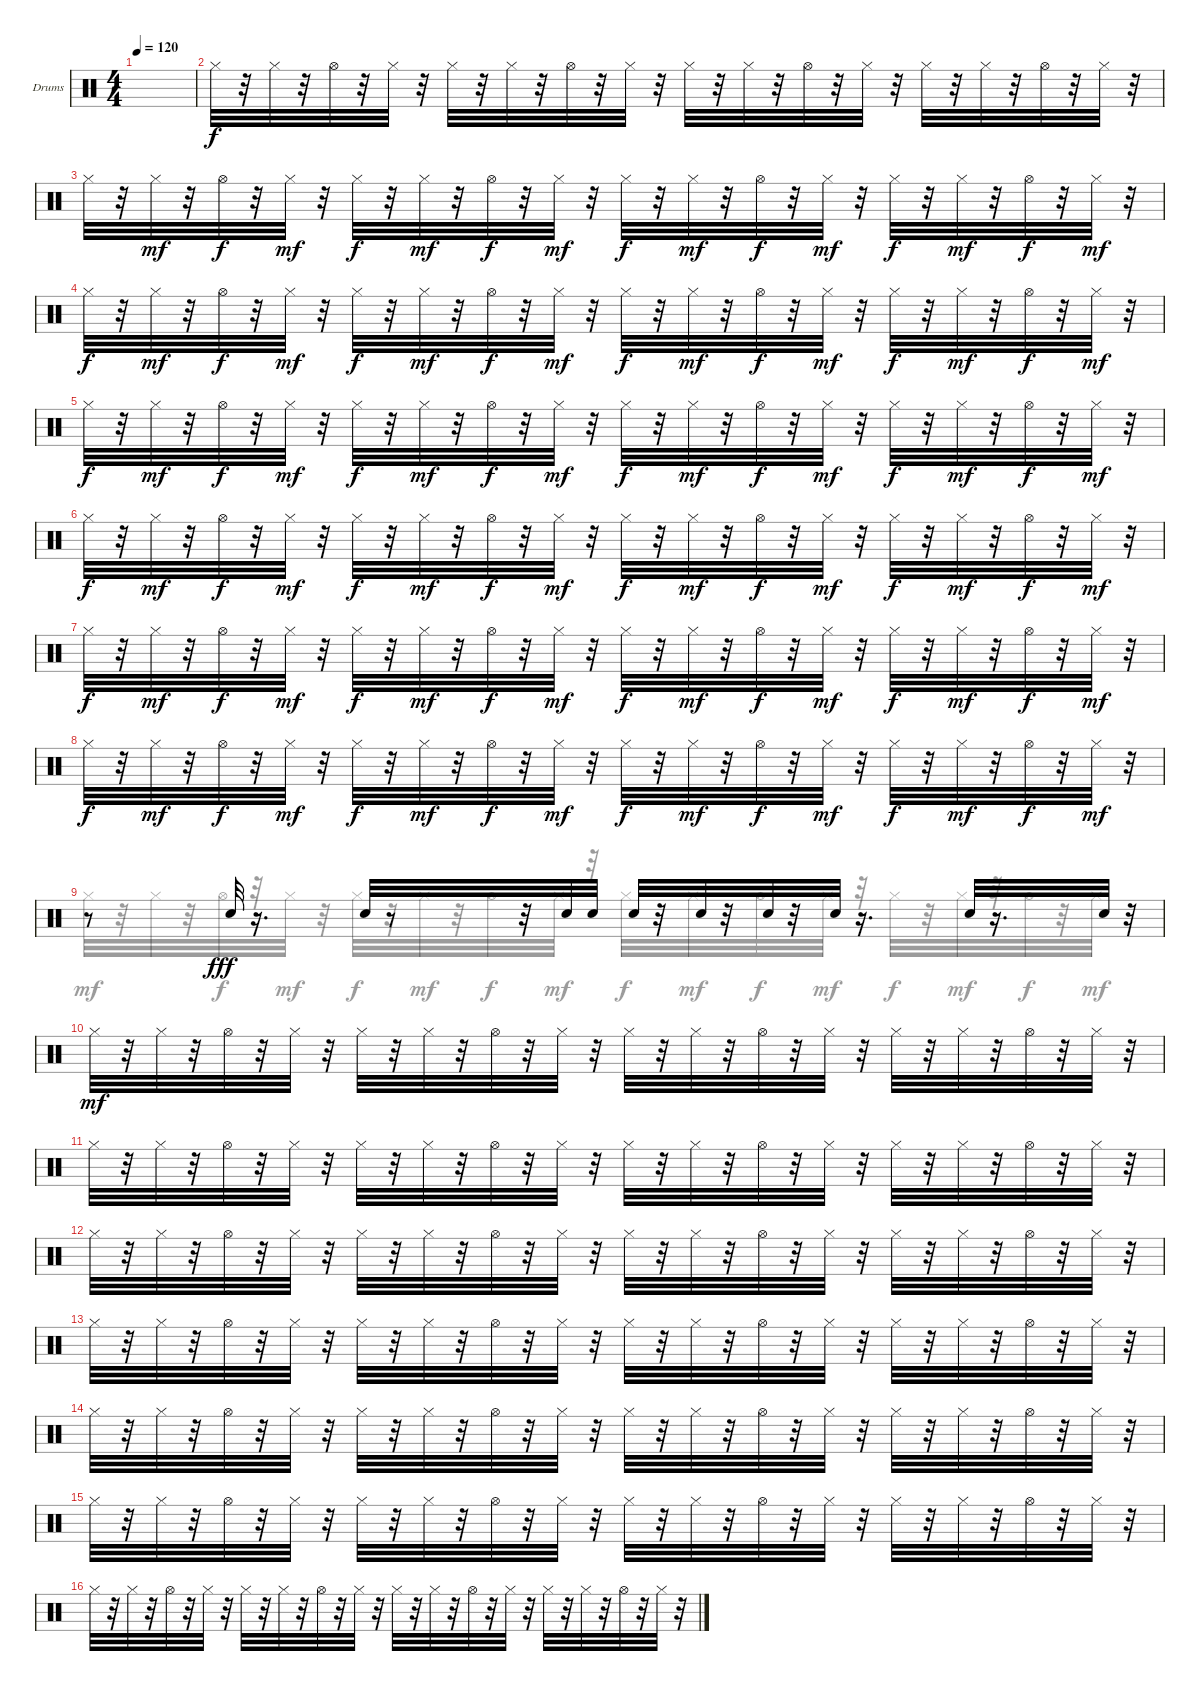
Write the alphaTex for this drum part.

\defaultSystemsLayout 4
\bracketExtendMode nobrackets
\firstSystemTrackNameOrientation horizontal
\otherSystemsTrackNameOrientation horizontal
\track ("Drumkit" "Drums") {instrument percussion}
\staff {score}
\articulation defaults
\voice
\ts (4 4)
\tempo 120
\clef neutral
\ks c
|
"Hi-Hat (closed)".32 r.32 "Hi-Hat (closed)".32 r.32 "Hi-Hat (open)".32 r.32 "Hi-Hat (closed)".32 r.32 "Hi-Hat (closed)".32 r.32 "Hi-Hat (closed)".32 r.32 "Hi-Hat (open)".32 r.32 "Hi-Hat (closed)".32 r.32 "Hi-Hat (closed)".32 r.32 "Hi-Hat (closed)".32 r.32 "Hi-Hat (open)".32 r.32 "Hi-Hat (closed)".32 r.32 "Hi-Hat (closed)".32 r.32 "Hi-Hat (closed)".32 r.32 "Hi-Hat (open)".32 r.32 "Hi-Hat (closed)".32 r.32 |
"Hi-Hat (closed)".32{dy f} r.32 "Hi-Hat (closed)".32{dy mf} r.32 "Hi-Hat (open)".32{dy f} r.32 "Hi-Hat (closed)".32{dy mf} r.32 "Hi-Hat (closed)".32{dy f} r.32 "Hi-Hat (closed)".32{dy mf} r.32 "Hi-Hat (open)".32{dy f} r.32 "Hi-Hat (closed)".32{dy mf} r.32 "Hi-Hat (closed)".32{dy f} r.32 "Hi-Hat (closed)".32{dy mf} r.32 "Hi-Hat (open)".32{dy f} r.32 "Hi-Hat (closed)".32{dy mf} r.32 "Hi-Hat (closed)".32{dy f} r.32 "Hi-Hat (closed)".32{dy mf} r.32 "Hi-Hat (open)".32{dy f} r.32 "Hi-Hat (closed)".32{dy mf} r.32 |
"Hi-Hat (closed)".32{dy f} r.32 "Hi-Hat (closed)".32{dy mf} r.32 "Hi-Hat (open)".32{dy f} r.32 "Hi-Hat (closed)".32{dy mf} r.32 "Hi-Hat (closed)".32{dy f} r.32 "Hi-Hat (closed)".32{dy mf} r.32 "Hi-Hat (open)".32{dy f} r.32 "Hi-Hat (closed)".32{dy mf} r.32 "Hi-Hat (closed)".32{dy f} r.32 "Hi-Hat (closed)".32{dy mf} r.32 "Hi-Hat (open)".32{dy f} r.32 "Hi-Hat (closed)".32{dy mf} r.32 "Hi-Hat (closed)".32{dy f} r.32 "Hi-Hat (closed)".32{dy mf} r.32 "Hi-Hat (open)".32{dy f} r.32 "Hi-Hat (closed)".32{dy mf} r.32 |
"Hi-Hat (closed)".32{dy f} r.32 "Hi-Hat (closed)".32{dy mf} r.32 "Hi-Hat (open)".32{dy f} r.32 "Hi-Hat (closed)".32{dy mf} r.32 "Hi-Hat (closed)".32{dy f} r.32 "Hi-Hat (closed)".32{dy mf} r.32 "Hi-Hat (open)".32{dy f} r.32 "Hi-Hat (closed)".32{dy mf} r.32 "Hi-Hat (closed)".32{dy f} r.32 "Hi-Hat (closed)".32{dy mf} r.32 "Hi-Hat (open)".32{dy f} r.32 "Hi-Hat (closed)".32{dy mf} r.32 "Hi-Hat (closed)".32{dy f} r.32 "Hi-Hat (closed)".32{dy mf} r.32 "Hi-Hat (open)".32{dy f} r.32 "Hi-Hat (closed)".32{dy mf} r.32 |
"Hi-Hat (closed)".32{dy f} r.32 "Hi-Hat (closed)".32{dy mf} r.32 "Hi-Hat (open)".32{dy f} r.32 "Hi-Hat (closed)".32{dy mf} r.32 "Hi-Hat (closed)".32{dy f} r.32 "Hi-Hat (closed)".32{dy mf} r.32 "Hi-Hat (open)".32{dy f} r.32 "Hi-Hat (closed)".32{dy mf} r.32 "Hi-Hat (closed)".32{dy f} r.32 "Hi-Hat (closed)".32{dy mf} r.32 "Hi-Hat (open)".32{dy f} r.32 "Hi-Hat (closed)".32{dy mf} r.32 "Hi-Hat (closed)".32{dy f} r.32 "Hi-Hat (closed)".32{dy mf} r.32 "Hi-Hat (open)".32{dy f} r.32 "Hi-Hat (closed)".32{dy mf} r.32 |
"Hi-Hat (closed)".32{dy f} r.32 "Hi-Hat (closed)".32{dy mf} r.32 "Hi-Hat (open)".32{dy f} r.32 "Hi-Hat (closed)".32{dy mf} r.32 "Hi-Hat (closed)".32{dy f} r.32 "Hi-Hat (closed)".32{dy mf} r.32 "Hi-Hat (open)".32{dy f} r.32 "Hi-Hat (closed)".32{dy mf} r.32 "Hi-Hat (closed)".32{dy f} r.32 "Hi-Hat (closed)".32{dy mf} r.32 "Hi-Hat (open)".32{dy f} r.32 "Hi-Hat (closed)".32{dy mf} r.32 "Hi-Hat (closed)".32{dy f} r.32 "Hi-Hat (closed)".32{dy mf} r.32 "Hi-Hat (open)".32{dy f} r.32 "Hi-Hat (closed)".32{dy mf} r.32 |
"Hi-Hat (closed)".32{dy f} r.32 "Hi-Hat (closed)".32{dy mf} r.32 "Hi-Hat (open)".32{dy f} r.32 "Hi-Hat (closed)".32{dy mf} r.32 "Hi-Hat (closed)".32{dy f} r.32 "Hi-Hat (closed)".32{dy mf} r.32 "Hi-Hat (open)".32{dy f} r.32 "Hi-Hat (closed)".32{dy mf} r.32 "Hi-Hat (closed)".32{dy f} r.32 "Hi-Hat (closed)".32{dy mf} r.32 "Hi-Hat (open)".32{dy f} r.32 "Hi-Hat (closed)".32{dy mf} r.32 "Hi-Hat (closed)".32{dy f} r.32 "Hi-Hat (closed)".32{dy mf} r.32 "Hi-Hat (open)".32{dy f} r.32 "Hi-Hat (closed)".32{dy mf} r.32 |
\scale
0.474178 r.8 "Snare (hit) 2".32{dy fff} r.16{d} "Snare (hit) 2".32 r.8 r.32 "Snare (hit) 2".32 "Snare (hit) 2".32 "Snare (hit) 2".32 r.32 "Snare (hit) 2".32 r.32 "Snare (hit) 2".32 r.32 "Snare (hit) 2".32 r.16{d} "Snare (hit) 2".32 r.16{d} "Snare (hit) 2".32 r.32 |
\scale
0.262911 "Hi-Hat (closed)".32{dy mf} r.32 "Hi-Hat (closed)".32 r.32 "Hi-Hat (open)".32 r.32 "Hi-Hat (closed)".32 r.32 "Hi-Hat (closed)".32 r.32 "Hi-Hat (closed)".32 r.32 "Hi-Hat (open)".32 r.32 "Hi-Hat (closed)".32 r.32 "Hi-Hat (closed)".32 r.32 "Hi-Hat (closed)".32 r.32 "Hi-Hat (open)".32 r.32 "Hi-Hat (closed)".32 r.32 "Hi-Hat (closed)".32 r.32 "Hi-Hat (closed)".32 r.32 "Hi-Hat (open)".32 r.32 "Hi-Hat (closed)".32 r.32 |
\scale
0.262911 "Hi-Hat (closed)".32 r.32 "Hi-Hat (closed)".32 r.32 "Hi-Hat (open)".32 r.32 "Hi-Hat (closed)".32 r.32 "Hi-Hat (closed)".32 r.32 "Hi-Hat (closed)".32 r.32 "Hi-Hat (open)".32 r.32 "Hi-Hat (closed)".32 r.32 "Hi-Hat (closed)".32 r.32 "Hi-Hat (closed)".32 r.32 "Hi-Hat (open)".32 r.32 "Hi-Hat (closed)".32 r.32 "Hi-Hat (closed)".32 r.32 "Hi-Hat (closed)".32 r.32 "Hi-Hat (open)".32 r.32 "Hi-Hat (closed)".32 r.32 |
\scale
0.333333 "Hi-Hat (closed)".32 r.32 "Hi-Hat (closed)".32 r.32 "Hi-Hat (open)".32 r.32 "Hi-Hat (closed)".32 r.32 "Hi-Hat (closed)".32 r.32 "Hi-Hat (closed)".32 r.32 "Hi-Hat (open)".32 r.32 "Hi-Hat (closed)".32 r.32 "Hi-Hat (closed)".32 r.32 "Hi-Hat (closed)".32 r.32 "Hi-Hat (open)".32 r.32 "Hi-Hat (closed)".32 r.32 "Hi-Hat (closed)".32 r.32 "Hi-Hat (closed)".32 r.32 "Hi-Hat (open)".32 r.32 "Hi-Hat (closed)".32 r.32 |
\scale
0.333333 "Hi-Hat (closed)".32 r.32 "Hi-Hat (closed)".32 r.32 "Hi-Hat (open)".32 r.32 "Hi-Hat (closed)".32 r.32 "Hi-Hat (closed)".32 r.32 "Hi-Hat (closed)".32 r.32 "Hi-Hat (open)".32 r.32 "Hi-Hat (closed)".32 r.32 "Hi-Hat (closed)".32 r.32 "Hi-Hat (closed)".32 r.32 "Hi-Hat (open)".32 r.32 "Hi-Hat (closed)".32 r.32 "Hi-Hat (closed)".32 r.32 "Hi-Hat (closed)".32 r.32 "Hi-Hat (open)".32 r.32 "Hi-Hat (closed)".32 r.32 |
\scale
0.333333 "Hi-Hat (closed)".32 r.32 "Hi-Hat (closed)".32 r.32 "Hi-Hat (open)".32 r.32 "Hi-Hat (closed)".32 r.32 "Hi-Hat (closed)".32 r.32 "Hi-Hat (closed)".32 r.32 "Hi-Hat (open)".32 r.32 "Hi-Hat (closed)".32 r.32 "Hi-Hat (closed)".32 r.32 "Hi-Hat (closed)".32 r.32 "Hi-Hat (open)".32 r.32 "Hi-Hat (closed)".32 r.32 "Hi-Hat (closed)".32 r.32 "Hi-Hat (closed)".32 r.32 "Hi-Hat (open)".32 r.32 "Hi-Hat (closed)".32 r.32 |
\scale
0.333333 "Hi-Hat (closed)".32 r.32 "Hi-Hat (closed)".32 r.32 "Hi-Hat (open)".32 r.32 "Hi-Hat (closed)".32 r.32 "Hi-Hat (closed)".32 r.32 "Hi-Hat (closed)".32 r.32 "Hi-Hat (open)".32 r.32 "Hi-Hat (closed)".32 r.32 "Hi-Hat (closed)".32 r.32 "Hi-Hat (closed)".32 r.32 "Hi-Hat (open)".32 r.32 "Hi-Hat (closed)".32 r.32 "Hi-Hat (closed)".32 r.32 "Hi-Hat (closed)".32 r.32 "Hi-Hat (open)".32 r.32 "Hi-Hat (closed)".32 r.32 |
\scale
0.333333 "Hi-Hat (closed)".32 r.32 "Hi-Hat (closed)".32 r.32 "Hi-Hat (open)".32 r.32 "Hi-Hat (closed)".32 r.32 "Hi-Hat (closed)".32 r.32 "Hi-Hat (closed)".32 r.32 "Hi-Hat (open)".32 r.32 "Hi-Hat (closed)".32 r.32 "Hi-Hat (closed)".32 r.32 "Hi-Hat (closed)".32 r.32 "Hi-Hat (open)".32 r.32 "Hi-Hat (closed)".32 r.32 "Hi-Hat (closed)".32 r.32 "Hi-Hat (closed)".32 r.32 "Hi-Hat (open)".32 r.32 "Hi-Hat (closed)".32 r.32
\voice
\clef neutral
\ottava regular
\simile none
\ks c
|
|
|
|
|
|
|
|
\scale
0.474178 "Hi-Hat (closed)".32 r.32 "Hi-Hat (closed)".32{dy mf} r.32 "Hi-Hat (open)".32{dy f} r.32 "Hi-Hat (closed)".32{dy mf} r.32 "Hi-Hat (closed)".32{dy f} r.32 "Hi-Hat (closed)".32{dy mf} r.32 "Hi-Hat (open)".32{dy f} r.32 "Hi-Hat (closed)".32{dy mf} r.32 "Hi-Hat (closed)".32{dy f} r.32 "Hi-Hat (closed)".32{dy mf} r.32 "Hi-Hat (open)".32{dy f} r.32 "Hi-Hat (closed)".32{dy mf} r.32 "Hi-Hat (closed)".32{dy f} r.32 "Hi-Hat (closed)".32{dy mf} r.32 "Hi-Hat (open)".32{dy f} r.32 "Hi-Hat (closed)".32{dy mf} r.32 |
\scale
0.262911 |
\scale
0.262911 |
\scale
0.333333 |
\scale
0.333333 |
\scale
0.333333 |
\scale
0.333333 |
\scale
0.333333
